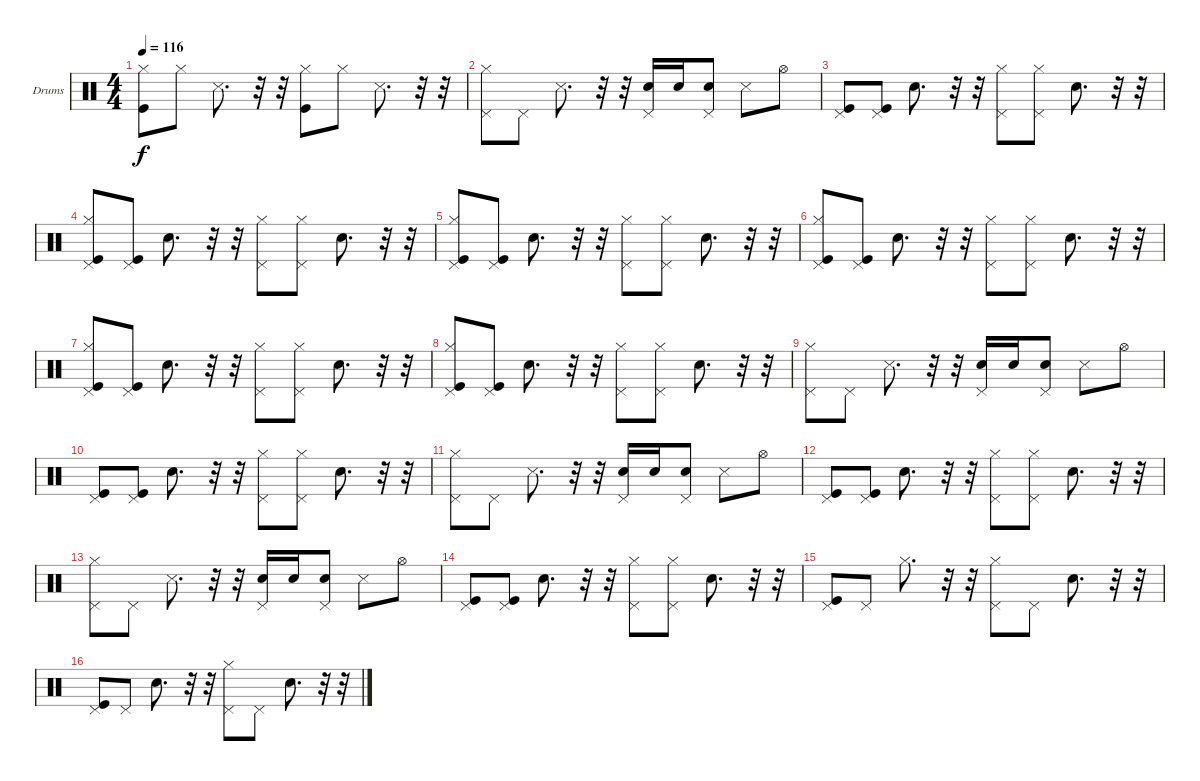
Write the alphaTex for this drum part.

\bracketExtendMode groupsimilarinstruments
\firstSystemTrackNameOrientation horizontal
\otherSystemsTrackNameOrientation horizontal
\track ("Drumkit" "Drums") {instrument percussion}
\staff {score}
\articulation defaults
\ts (4 4)
\tempo 116
\clef neutral
\ks c
("Kick (hit)" "Hi-Hat (closed)").8{dy f} "Hi-Hat (closed)".8 "Snare (side stick) 3".8{d} r.32 r.32 ("Kick (hit)" "Hi-Hat (closed)").8 "Hi-Hat (closed)".8 "Snare (side stick) 3".8{d} r.32 r.32 |
("Hi-Hat (closed)" "Pedal Hi-Hat (hit)").8 "Pedal Hi-Hat (hit)".8 "Snare (side stick) 3".8{d} r.32 r.32 ("Snare (hit) 2" "Pedal Hi-Hat (hit)").16 "Snare (hit) 2".16 ("Snare (hit) 2" "Pedal Hi-Hat (hit)").8 "Snare (side stick) 3".8 "Hi-Hat (open)".8 |
("Kick (hit)" "Pedal Hi-Hat (hit)").8 ("Kick (hit)" "Pedal Hi-Hat (hit)").8 "Snare (hit) 2".8{d} r.32 r.32 ("Hi-Hat (closed)" "Pedal Hi-Hat (hit)").8 ("Hi-Hat (closed)" "Pedal Hi-Hat (hit)").8 "Snare (hit) 2".8{d} r.32 r.32 |
("Kick (hit)" "Hi-Hat (closed)" "Pedal Hi-Hat (hit)").8 ("Kick (hit)" "Pedal Hi-Hat (hit)").8 "Snare (hit) 2".8{d} r.32 r.32 ("Hi-Hat (closed)" "Pedal Hi-Hat (hit)").8 ("Hi-Hat (closed)" "Pedal Hi-Hat (hit)").8 "Snare (hit) 2".8{d} r.32 r.32 |
("Kick (hit)" "Hi-Hat (closed)" "Pedal Hi-Hat (hit)").8 ("Kick (hit)" "Pedal Hi-Hat (hit)").8 "Snare (hit) 2".8{d} r.32 r.32 ("Hi-Hat (closed)" "Pedal Hi-Hat (hit)").8 ("Hi-Hat (closed)" "Pedal Hi-Hat (hit)").8 "Snare (hit) 2".8{d} r.32 r.32 |
("Kick (hit)" "Hi-Hat (closed)" "Pedal Hi-Hat (hit)").8 ("Kick (hit)" "Pedal Hi-Hat (hit)").8 "Snare (hit) 2".8{d} r.32 r.32 ("Hi-Hat (closed)" "Pedal Hi-Hat (hit)").8 ("Hi-Hat (closed)" "Pedal Hi-Hat (hit)").8 "Snare (hit) 2".8{d} r.32 r.32 |
("Kick (hit)" "Hi-Hat (closed)" "Pedal Hi-Hat (hit)").8 ("Kick (hit)" "Pedal Hi-Hat (hit)").8 "Snare (hit) 2".8{d} r.32 r.32 ("Hi-Hat (closed)" "Pedal Hi-Hat (hit)").8 ("Hi-Hat (closed)" "Pedal Hi-Hat (hit)").8 "Snare (hit) 2".8{d} r.32 r.32 |
("Kick (hit)" "Hi-Hat (closed)" "Pedal Hi-Hat (hit)").8 ("Kick (hit)" "Pedal Hi-Hat (hit)").8 "Snare (hit) 2".8{d} r.32 r.32 ("Hi-Hat (closed)" "Pedal Hi-Hat (hit)").8 ("Hi-Hat (closed)" "Pedal Hi-Hat (hit)").8 "Snare (hit) 2".8{d} r.32 r.32 |
("Hi-Hat (closed)" "Pedal Hi-Hat (hit)").8 "Pedal Hi-Hat (hit)".8 "Snare (side stick) 3".8{d} r.32 r.32 ("Snare (hit) 2" "Pedal Hi-Hat (hit)").16 "Snare (hit) 2".16 ("Snare (hit) 2" "Pedal Hi-Hat (hit)").8 "Snare (side stick) 3".8 "Hi-Hat (open)".8 |
("Kick (hit)" "Pedal Hi-Hat (hit)").8 ("Kick (hit)" "Pedal Hi-Hat (hit)").8 "Snare (hit) 2".8{d} r.32 r.32 ("Hi-Hat (closed)" "Pedal Hi-Hat (hit)").8 ("Hi-Hat (closed)" "Pedal Hi-Hat (hit)").8 "Snare (hit) 2".8{d} r.32 r.32 |
("Hi-Hat (closed)" "Pedal Hi-Hat (hit)").8 "Pedal Hi-Hat (hit)".8 "Snare (side stick) 3".8{d} r.32 r.32 ("Snare (hit) 2" "Pedal Hi-Hat (hit)").16 "Snare (hit) 2".16 ("Snare (hit) 2" "Pedal Hi-Hat (hit)").8 "Snare (side stick) 3".8 "Hi-Hat (open)".8 |
("Kick (hit)" "Pedal Hi-Hat (hit)").8 ("Kick (hit)" "Pedal Hi-Hat (hit)").8 "Snare (hit) 2".8{d} r.32 r.32 ("Hi-Hat (closed)" "Pedal Hi-Hat (hit)").8 ("Hi-Hat (closed)" "Pedal Hi-Hat (hit)").8 "Snare (hit) 2".8{d} r.32 r.32 |
("Hi-Hat (closed)" "Pedal Hi-Hat (hit)").8 "Pedal Hi-Hat (hit)".8 "Snare (side stick) 3".8{d} r.32 r.32 ("Snare (hit) 2" "Pedal Hi-Hat (hit)").16 "Snare (hit) 2".16 ("Snare (hit) 2" "Pedal Hi-Hat (hit)").8 "Snare (side stick) 3".8 "Hi-Hat (open)".8 |
("Kick (hit)" "Pedal Hi-Hat (hit)").8 ("Kick (hit)" "Pedal Hi-Hat (hit)").8 "Snare (hit) 2".8{d} r.32 r.32 ("Hi-Hat (closed)" "Pedal Hi-Hat (hit)").8 ("Hi-Hat (closed)" "Pedal Hi-Hat (hit)").8 "Snare (hit) 2".8{d} r.32 r.32 |
("Kick (hit)" "Pedal Hi-Hat (hit)").8 "Pedal Hi-Hat (hit)".8 "Hi-Hat (closed)".8{d} r.32 r.32 ("Hi-Hat (closed)" "Pedal Hi-Hat (hit)").8 "Pedal Hi-Hat (hit)".8 "Snare (hit) 2".8{d} r.32 r.32 |
("Kick (hit)" "Pedal Hi-Hat (hit)").8 "Pedal Hi-Hat (hit)".8 "Snare (hit) 2".8{d} r.32 r.32 ("Hi-Hat (closed)" "Pedal Hi-Hat (hit)").8 "Pedal Hi-Hat (hit)".8 "Snare (hit) 2".8{d} r.32 r.32
